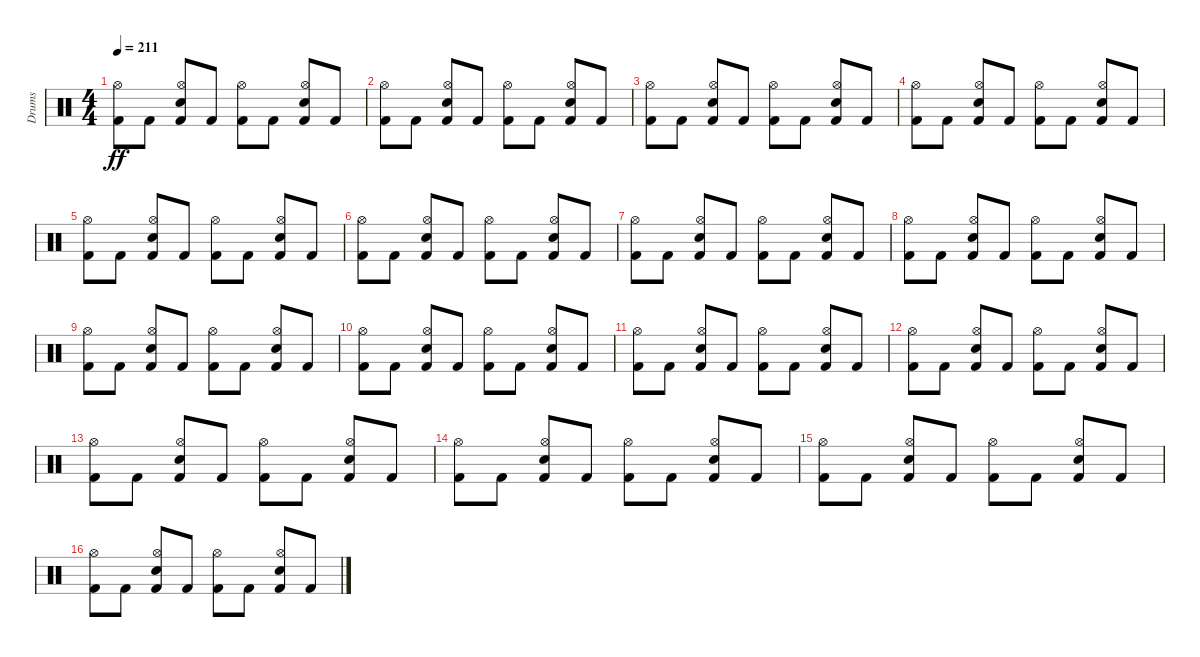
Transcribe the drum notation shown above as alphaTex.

\track ("Drums" "Drums") {instrument percussion}
\staff {score}
\articulation defaults
\ts (4 4)
\tempo 211
\clef neutral
\ks c
("Kick (hit) 2" "Hi-Hat (open)").8{dy ff} "Kick (hit) 2".8 ("Kick (hit) 2" "Snare (hit) 2" "Hi-Hat (open)").8 "Kick (hit) 2".8 ("Kick (hit) 2" "Hi-Hat (open)").8 "Kick (hit) 2".8 ("Kick (hit) 2" "Snare (hit) 2" "Hi-Hat (open)").8 "Kick (hit) 2".8 |
("Kick (hit) 2" "Hi-Hat (open)").8 "Kick (hit) 2".8 ("Kick (hit) 2" "Snare (hit) 2" "Hi-Hat (open)").8 "Kick (hit) 2".8 ("Kick (hit) 2" "Hi-Hat (open)").8 "Kick (hit) 2".8 ("Kick (hit) 2" "Snare (hit) 2" "Hi-Hat (open)").8 "Kick (hit) 2".8 |
("Kick (hit) 2" "Hi-Hat (open)").8 "Kick (hit) 2".8 ("Kick (hit) 2" "Snare (hit) 2" "Hi-Hat (open)").8 "Kick (hit) 2".8 ("Kick (hit) 2" "Hi-Hat (open)").8 "Kick (hit) 2".8 ("Kick (hit) 2" "Snare (hit) 2" "Hi-Hat (open)").8 "Kick (hit) 2".8 |
("Kick (hit) 2" "Hi-Hat (open)").8 "Kick (hit) 2".8 ("Kick (hit) 2" "Snare (hit) 2" "Hi-Hat (open)").8 "Kick (hit) 2".8 ("Kick (hit) 2" "Hi-Hat (open)").8 "Kick (hit) 2".8 ("Kick (hit) 2" "Snare (hit) 2" "Hi-Hat (open)").8 "Kick (hit) 2".8 |
("Kick (hit) 2" "Hi-Hat (open)").8 "Kick (hit) 2".8 ("Kick (hit) 2" "Snare (hit) 2" "Hi-Hat (open)").8 "Kick (hit) 2".8 ("Kick (hit) 2" "Hi-Hat (open)").8 "Kick (hit) 2".8 ("Kick (hit) 2" "Snare (hit) 2" "Hi-Hat (open)").8 "Kick (hit) 2".8 |
("Kick (hit) 2" "Hi-Hat (open)").8 "Kick (hit) 2".8 ("Kick (hit) 2" "Snare (hit) 2" "Hi-Hat (open)").8 "Kick (hit) 2".8 ("Kick (hit) 2" "Hi-Hat (open)").8 "Kick (hit) 2".8 ("Kick (hit) 2" "Snare (hit) 2" "Hi-Hat (open)").8 "Kick (hit) 2".8 |
("Kick (hit) 2" "Hi-Hat (open)").8 "Kick (hit) 2".8 ("Kick (hit) 2" "Snare (hit) 2" "Hi-Hat (open)").8 "Kick (hit) 2".8 ("Kick (hit) 2" "Hi-Hat (open)").8 "Kick (hit) 2".8 ("Kick (hit) 2" "Snare (hit) 2" "Hi-Hat (open)").8 "Kick (hit) 2".8 |
("Kick (hit) 2" "Hi-Hat (open)").8 "Kick (hit) 2".8 ("Kick (hit) 2" "Snare (hit) 2" "Hi-Hat (open)").8 "Kick (hit) 2".8 ("Kick (hit) 2" "Hi-Hat (open)").8 "Kick (hit) 2".8 ("Kick (hit) 2" "Snare (hit) 2" "Hi-Hat (open)").8 "Kick (hit) 2".8 |
("Kick (hit) 2" "Hi-Hat (open)").8 "Kick (hit) 2".8 ("Kick (hit) 2" "Snare (hit) 2" "Hi-Hat (open)").8 "Kick (hit) 2".8 ("Kick (hit) 2" "Hi-Hat (open)").8 "Kick (hit) 2".8 ("Kick (hit) 2" "Snare (hit) 2" "Hi-Hat (open)").8 "Kick (hit) 2".8 |
("Kick (hit) 2" "Hi-Hat (open)").8 "Kick (hit) 2".8 ("Kick (hit) 2" "Snare (hit) 2" "Hi-Hat (open)").8 "Kick (hit) 2".8 ("Kick (hit) 2" "Hi-Hat (open)").8 "Kick (hit) 2".8 ("Kick (hit) 2" "Snare (hit) 2" "Hi-Hat (open)").8 "Kick (hit) 2".8 |
("Kick (hit) 2" "Hi-Hat (open)").8 "Kick (hit) 2".8 ("Kick (hit) 2" "Snare (hit) 2" "Hi-Hat (open)").8 "Kick (hit) 2".8 ("Kick (hit) 2" "Hi-Hat (open)").8 "Kick (hit) 2".8 ("Kick (hit) 2" "Snare (hit) 2" "Hi-Hat (open)").8 "Kick (hit) 2".8 |
("Kick (hit) 2" "Hi-Hat (open)").8 "Kick (hit) 2".8 ("Kick (hit) 2" "Snare (hit) 2" "Hi-Hat (open)").8 "Kick (hit) 2".8 ("Kick (hit) 2" "Hi-Hat (open)").8 "Kick (hit) 2".8 ("Kick (hit) 2" "Snare (hit) 2" "Hi-Hat (open)").8 "Kick (hit) 2".8 |
("Kick (hit) 2" "Hi-Hat (open)").8 "Kick (hit) 2".8 ("Kick (hit) 2" "Snare (hit) 2" "Hi-Hat (open)").8 "Kick (hit) 2".8 ("Kick (hit) 2" "Hi-Hat (open)").8 "Kick (hit) 2".8 ("Kick (hit) 2" "Snare (hit) 2" "Hi-Hat (open)").8 "Kick (hit) 2".8 |
("Kick (hit) 2" "Hi-Hat (open)").8 "Kick (hit) 2".8 ("Kick (hit) 2" "Snare (hit) 2" "Hi-Hat (open)").8 "Kick (hit) 2".8 ("Kick (hit) 2" "Hi-Hat (open)").8 "Kick (hit) 2".8 ("Kick (hit) 2" "Snare (hit) 2" "Hi-Hat (open)").8 "Kick (hit) 2".8 |
("Kick (hit) 2" "Hi-Hat (open)").8 "Kick (hit) 2".8 ("Kick (hit) 2" "Snare (hit) 2" "Hi-Hat (open)").8 "Kick (hit) 2".8 ("Kick (hit) 2" "Hi-Hat (open)").8 "Kick (hit) 2".8 ("Kick (hit) 2" "Snare (hit) 2" "Hi-Hat (open)").8 "Kick (hit) 2".8 |
("Kick (hit) 2" "Hi-Hat (open)").8 "Kick (hit) 2".8 ("Kick (hit) 2" "Snare (hit) 2" "Hi-Hat (open)").8 "Kick (hit) 2".8 ("Kick (hit) 2" "Hi-Hat (open)").8 "Kick (hit) 2".8 ("Kick (hit) 2" "Snare (hit) 2" "Hi-Hat (open)").8 "Kick (hit) 2".8
